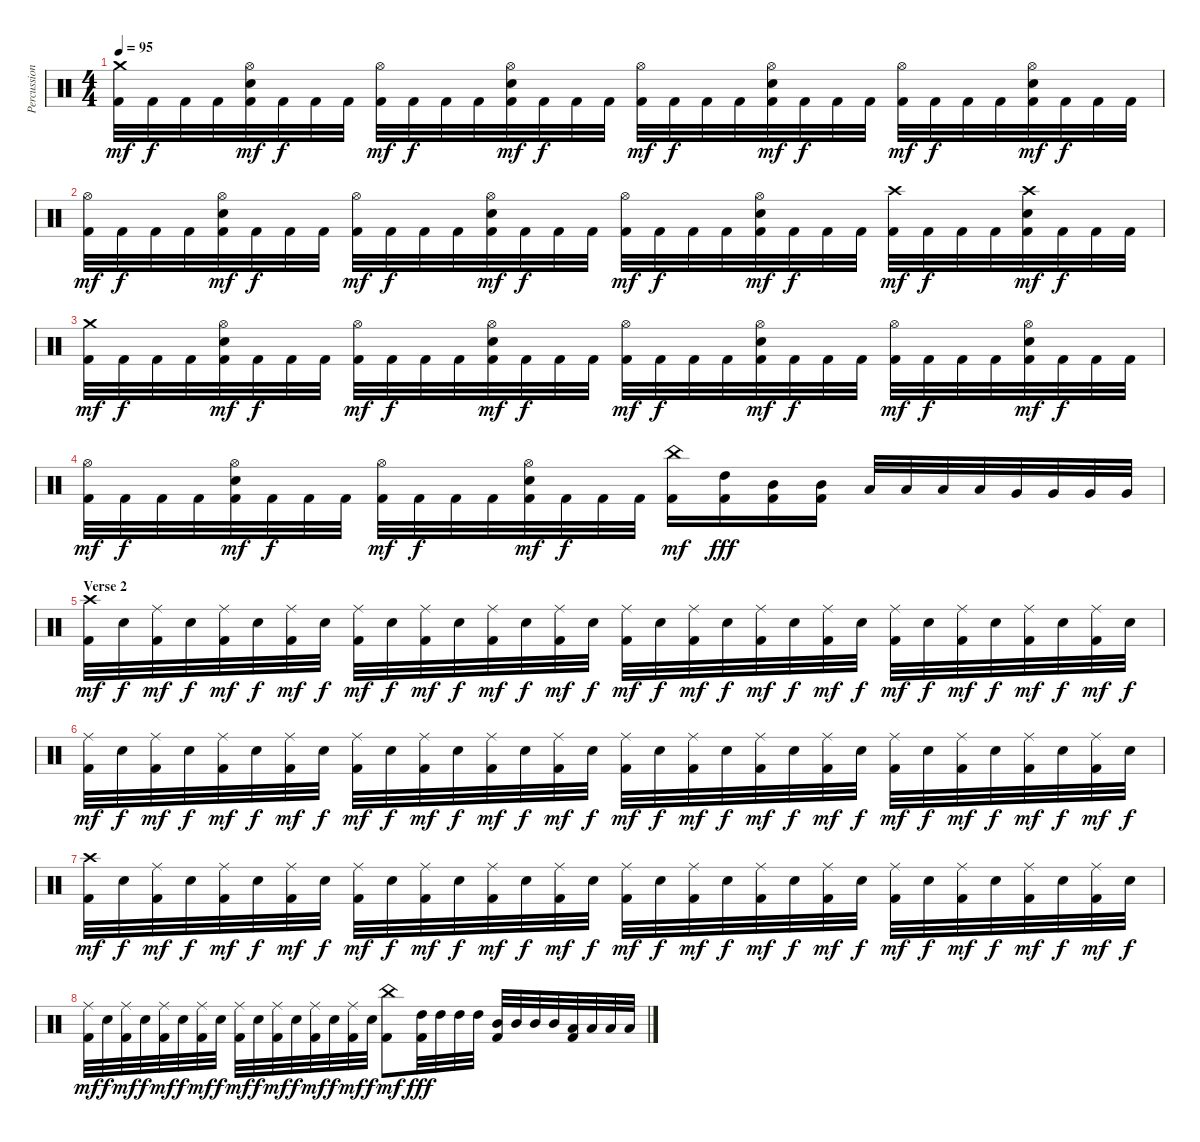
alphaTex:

\track ("Percussion" "Percussion") {instrument percussion}
\staff {score}
\articulation defaults
\ts (4 4)
\tempo 95
\clef neutral
\ks c
("Crash medium (hit)" "Kick (hit) 2").32{dy mf} "Kick (hit) 2".32{dy f} "Kick (hit) 2".32 "Kick (hit) 2".32 ("Hi-Hat (open)" "Electric Snare (hit)" "Kick (hit) 2").32{dy mf} "Kick (hit) 2".32{dy f} "Kick (hit) 2".32 "Kick (hit) 2".32 ("Hi-Hat (open)" "Kick (hit) 2").32{dy mf} "Kick (hit) 2".32{dy f} "Kick (hit) 2".32 "Kick (hit) 2".32 ("Hi-Hat (open)" "Electric Snare (hit)" "Kick (hit) 2").32{dy mf} "Kick (hit) 2".32{dy f} "Kick (hit) 2".32 "Kick (hit) 2".32 ("Hi-Hat (open)" "Kick (hit) 2").32{dy mf} "Kick (hit) 2".32{dy f} "Kick (hit) 2".32 "Kick (hit) 2".32 ("Hi-Hat (open)" "Electric Snare (hit)" "Kick (hit) 2").32{dy mf} "Kick (hit) 2".32{dy f} "Kick (hit) 2".32 "Kick (hit) 2".32 ("Hi-Hat (open)" "Kick (hit) 2").32{dy mf} "Kick (hit) 2".32{dy f} "Kick (hit) 2".32 "Kick (hit) 2".32 ("Hi-Hat (open)" "Electric Snare (hit)" "Kick (hit) 2").32{dy mf} "Kick (hit) 2".32{dy f} "Kick (hit) 2".32 "Kick (hit) 2".32 |
("Hi-Hat (open)" "Kick (hit) 2").32{dy mf} "Kick (hit) 2".32{dy f} "Kick (hit) 2".32 "Kick (hit) 2".32 ("Hi-Hat (open)" "Electric Snare (hit)" "Kick (hit) 2").32{dy mf} "Kick (hit) 2".32{dy f} "Kick (hit) 2".32 "Kick (hit) 2".32 ("Hi-Hat (open)" "Kick (hit) 2").32{dy mf} "Kick (hit) 2".32{dy f} "Kick (hit) 2".32 "Kick (hit) 2".32 ("Hi-Hat (open)" "Electric Snare (hit)" "Kick (hit) 2").32{dy mf} "Kick (hit) 2".32{dy f} "Kick (hit) 2".32 "Kick (hit) 2".32 ("Hi-Hat (open)" "Kick (hit) 2").32{dy mf} "Kick (hit) 2".32{dy f} "Kick (hit) 2".32 "Kick (hit) 2".32 ("Hi-Hat (open)" "Electric Snare (hit)" "Kick (hit) 2").32{dy mf} "Kick (hit) 2".32{dy f} "Kick (hit) 2".32 "Kick (hit) 2".32 ("Crash high (hit)" "Kick (hit) 2").32{dy mf} "Kick (hit) 2".32{dy f} "Kick (hit) 2".32 "Kick (hit) 2".32 ("Crash high (hit)" "Electric Snare (hit)" "Kick (hit) 2").32{dy mf} "Kick (hit) 2".32{dy f} "Kick (hit) 2".32 "Kick (hit) 2".32 |
("Crash medium (hit)" "Kick (hit) 2").32{dy mf} "Kick (hit) 2".32{dy f} "Kick (hit) 2".32 "Kick (hit) 2".32 ("Hi-Hat (open)" "Electric Snare (hit)" "Kick (hit) 2").32{dy mf} "Kick (hit) 2".32{dy f} "Kick (hit) 2".32 "Kick (hit) 2".32 ("Hi-Hat (open)" "Kick (hit) 2").32{dy mf} "Kick (hit) 2".32{dy f} "Kick (hit) 2".32 "Kick (hit) 2".32 ("Hi-Hat (open)" "Electric Snare (hit)" "Kick (hit) 2").32{dy mf} "Kick (hit) 2".32{dy f} "Kick (hit) 2".32 "Kick (hit) 2".32 ("Hi-Hat (open)" "Kick (hit) 2").32{dy mf} "Kick (hit) 2".32{dy f} "Kick (hit) 2".32 "Kick (hit) 2".32 ("Hi-Hat (open)" "Electric Snare (hit)" "Kick (hit) 2").32{dy mf} "Kick (hit) 2".32{dy f} "Kick (hit) 2".32 "Kick (hit) 2".32 ("Hi-Hat (open)" "Kick (hit) 2").32{dy mf} "Kick (hit) 2".32{dy f} "Kick (hit) 2".32 "Kick (hit) 2".32 ("Hi-Hat (open)" "Electric Snare (hit)" "Kick (hit) 2").32{dy mf} "Kick (hit) 2".32{dy f} "Kick (hit) 2".32 "Kick (hit) 2".32 |
("Hi-Hat (open)" "Kick (hit) 2").32{dy mf} "Kick (hit) 2".32{dy f} "Kick (hit) 2".32 "Kick (hit) 2".32 ("Hi-Hat (open)" "Electric Snare (hit)" "Kick (hit) 2").32{dy mf} "Kick (hit) 2".32{dy f} "Kick (hit) 2".32 "Kick (hit) 2".32 ("Hi-Hat (open)" "Kick (hit) 2").32{dy mf} "Kick (hit) 2".32{dy f} "Kick (hit) 2".32 "Kick (hit) 2".32 ("Hi-Hat (open)" "Electric Snare (hit)" "Kick (hit) 2").32{dy mf} "Kick (hit) 2".32{dy f} "Kick (hit) 2".32 "Kick (hit) 2".32 ("China (hit)" "Kick (hit) 2").16{dy mf} ("High Tom (hit)" "Kick (hit) 2").16{dy fff} ("Mid Tom (hit)" "Kick (hit) 2").16 ("Mid Tom (hit)" "Kick (hit) 2").16 "Low Tom (hit)".32 "Low Tom (hit)".32 "Low Tom (hit)".32 "Low Tom (hit)".32 "Very Low Tom (hit)".32 "Very Low Tom (hit)".32 "Very Low Tom (hit)".32 "Very Low Tom (hit)".32 |
\section ("" "Verse 2")
("Crash high (hit)" "Kick (hit) 2").32{dy mf} "Electric Snare (hit)".32{dy f} ("Ride (middle)" "Kick (hit) 2").32{dy mf} "Electric Snare (hit)".32{dy f} ("Ride (middle)" "Kick (hit) 2").32{dy mf} "Electric Snare (hit)".32{dy f} ("Ride (middle)" "Kick (hit) 2").32{dy mf} "Electric Snare (hit)".32{dy f} ("Ride (middle)" "Kick (hit) 2").32{dy mf} "Electric Snare (hit)".32{dy f} ("Ride (middle)" "Kick (hit) 2").32{dy mf} "Electric Snare (hit)".32{dy f} ("Ride (middle)" "Kick (hit) 2").32{dy mf} "Electric Snare (hit)".32{dy f} ("Ride (middle)" "Kick (hit) 2").32{dy mf} "Electric Snare (hit)".32{dy f} ("Ride (middle)" "Kick (hit) 2").32{dy mf} "Electric Snare (hit)".32{dy f} ("Ride (middle)" "Kick (hit) 2").32{dy mf} "Electric Snare (hit)".32{dy f} ("Ride (middle)" "Kick (hit) 2").32{dy mf} "Electric Snare (hit)".32{dy f} ("Ride (middle)" "Kick (hit) 2").32{dy mf} "Electric Snare (hit)".32{dy f} ("Ride (middle)" "Kick (hit) 2").32{dy mf} "Electric Snare (hit)".32{dy f} ("Ride (middle)" "Kick (hit) 2").32{dy mf} "Electric Snare (hit)".32{dy f} ("Ride (middle)" "Kick (hit) 2").32{dy mf} "Electric Snare (hit)".32{dy f} ("Ride (middle)" "Kick (hit) 2").32{dy mf} "Electric Snare (hit)".32{dy f} |
("Ride (middle)" "Kick (hit) 2").32{dy mf} "Electric Snare (hit)".32{dy f} ("Ride (middle)" "Kick (hit) 2").32{dy mf} "Electric Snare (hit)".32{dy f} ("Ride (middle)" "Kick (hit) 2").32{dy mf} "Electric Snare (hit)".32{dy f} ("Ride (middle)" "Kick (hit) 2").32{dy mf} "Electric Snare (hit)".32{dy f} ("Ride (middle)" "Kick (hit) 2").32{dy mf} "Electric Snare (hit)".32{dy f} ("Ride (middle)" "Kick (hit) 2").32{dy mf} "Electric Snare (hit)".32{dy f} ("Ride (middle)" "Kick (hit) 2").32{dy mf} "Electric Snare (hit)".32{dy f} ("Ride (middle)" "Kick (hit) 2").32{dy mf} "Electric Snare (hit)".32{dy f} ("Ride (middle)" "Kick (hit) 2").32{dy mf} "Electric Snare (hit)".32{dy f} ("Ride (middle)" "Kick (hit) 2").32{dy mf} "Electric Snare (hit)".32{dy f} ("Ride (middle)" "Kick (hit) 2").32{dy mf} "Electric Snare (hit)".32{dy f} ("Ride (middle)" "Kick (hit) 2").32{dy mf} "Electric Snare (hit)".32{dy f} ("Ride (middle)" "Kick (hit) 2").32{dy mf} "Electric Snare (hit)".32{dy f} ("Ride (middle)" "Kick (hit) 2").32{dy mf} "Electric Snare (hit)".32{dy f} ("Ride (middle)" "Kick (hit) 2").32{dy mf} "Electric Snare (hit)".32{dy f} ("Ride (middle)" "Kick (hit) 2").32{dy mf} "Electric Snare (hit)".32{dy f} |
("Crash high (hit)" "Kick (hit) 2").32{dy mf} "Electric Snare (hit)".32{dy f} ("Ride (middle)" "Kick (hit) 2").32{dy mf} "Electric Snare (hit)".32{dy f} ("Ride (middle)" "Kick (hit) 2").32{dy mf} "Electric Snare (hit)".32{dy f} ("Ride (middle)" "Kick (hit) 2").32{dy mf} "Electric Snare (hit)".32{dy f} ("Ride (middle)" "Kick (hit) 2").32{dy mf} "Electric Snare (hit)".32{dy f} ("Ride (middle)" "Kick (hit) 2").32{dy mf} "Electric Snare (hit)".32{dy f} ("Ride (middle)" "Kick (hit) 2").32{dy mf} "Electric Snare (hit)".32{dy f} ("Ride (middle)" "Kick (hit) 2").32{dy mf} "Electric Snare (hit)".32{dy f} ("Ride (middle)" "Kick (hit) 2").32{dy mf} "Electric Snare (hit)".32{dy f} ("Ride (middle)" "Kick (hit) 2").32{dy mf} "Electric Snare (hit)".32{dy f} ("Ride (middle)" "Kick (hit) 2").32{dy mf} "Electric Snare (hit)".32{dy f} ("Ride (middle)" "Kick (hit) 2").32{dy mf} "Electric Snare (hit)".32{dy f} ("Ride (middle)" "Kick (hit) 2").32{dy mf} "Electric Snare (hit)".32{dy f} ("Ride (middle)" "Kick (hit) 2").32{dy mf} "Electric Snare (hit)".32{dy f} ("Ride (middle)" "Kick (hit) 2").32{dy mf} "Electric Snare (hit)".32{dy f} ("Ride (middle)" "Kick (hit) 2").32{dy mf} "Electric Snare (hit)".32{dy f} |
("Ride (middle)" "Kick (hit) 2").32{dy mf} "Electric Snare (hit)".32{dy f} ("Ride (middle)" "Kick (hit) 2").32{dy mf} "Electric Snare (hit)".32{dy f} ("Ride (middle)" "Kick (hit) 2").32{dy mf} "Electric Snare (hit)".32{dy f} ("Ride (middle)" "Kick (hit) 2").32{dy mf} "Electric Snare (hit)".32{dy f} ("Ride (middle)" "Kick (hit) 2").32{dy mf} "Electric Snare (hit)".32{dy f} ("Ride (middle)" "Kick (hit) 2").32{dy mf} "Electric Snare (hit)".32{dy f} ("Ride (middle)" "Kick (hit) 2").32{dy mf} "Electric Snare (hit)".32{dy f} ("Ride (middle)" "Kick (hit) 2").32{dy mf} "Electric Snare (hit)".32{dy f} ("China (hit)" "Kick (hit) 2").8{dy mf} ("High Tom (hit)" "Kick (hit) 2").32{dy fff} "High Tom (hit)".32 "High Tom (hit)".32 "High Tom (hit)".32 ("Mid Tom (hit)" "Kick (hit) 2").32 "Mid Tom (hit)".32 "Mid Tom (hit)".32 "Mid Tom (hit)".32 ("Low Tom (hit)" "Kick (hit) 2").32 "Low Tom (hit)".32 "Low Tom (hit)".32 "Low Tom (hit)".32
